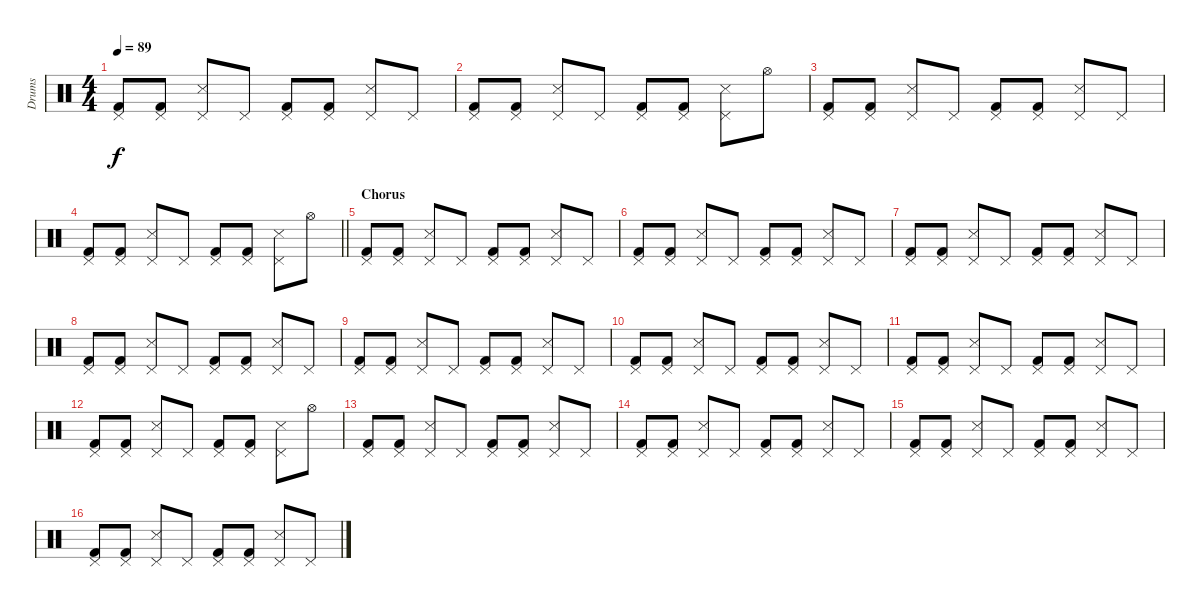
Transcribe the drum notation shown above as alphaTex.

\track ("Drums" "Drums") {instrument percussion}
\staff {score}
\articulation defaults
\ts (4 4)
\tempo 89
\clef neutral
\ks c
("Pedal Hi-Hat (hit)" "Kick (hit) 2").8{dy f} ("Pedal Hi-Hat (hit)" "Kick (hit) 2").8 ("Pedal Hi-Hat (hit)" "Snare (side stick) 3").8 "Pedal Hi-Hat (hit)".8 ("Pedal Hi-Hat (hit)" "Kick (hit) 2").8 ("Pedal Hi-Hat (hit)" "Kick (hit) 2").8 ("Pedal Hi-Hat (hit)" "Snare (side stick) 3").8 "Pedal Hi-Hat (hit)".8 |
("Pedal Hi-Hat (hit)" "Kick (hit) 2").8 ("Pedal Hi-Hat (hit)" "Kick (hit) 2").8 ("Pedal Hi-Hat (hit)" "Snare (side stick) 3").8 "Pedal Hi-Hat (hit)".8 ("Pedal Hi-Hat (hit)" "Kick (hit) 2").8 ("Pedal Hi-Hat (hit)" "Kick (hit) 2").8 ("Pedal Hi-Hat (hit)" "Snare (side stick) 3").8 "Hi-Hat (open)".8 |
("Pedal Hi-Hat (hit)" "Kick (hit) 2").8 ("Pedal Hi-Hat (hit)" "Kick (hit) 2").8 ("Pedal Hi-Hat (hit)" "Snare (side stick) 3").8 "Pedal Hi-Hat (hit)".8 ("Pedal Hi-Hat (hit)" "Kick (hit) 2").8 ("Pedal Hi-Hat (hit)" "Kick (hit) 2").8 ("Pedal Hi-Hat (hit)" "Snare (side stick) 3").8 "Pedal Hi-Hat (hit)".8 |
\barLineRight lightlight
("Pedal Hi-Hat (hit)" "Kick (hit) 2").8 ("Pedal Hi-Hat (hit)" "Kick (hit) 2").8 ("Pedal Hi-Hat (hit)" "Snare (side stick) 3").8 "Pedal Hi-Hat (hit)".8 ("Pedal Hi-Hat (hit)" "Kick (hit) 2").8 ("Pedal Hi-Hat (hit)" "Kick (hit) 2").8 ("Pedal Hi-Hat (hit)" "Snare (side stick) 3").8 "Hi-Hat (open)".8 |
\section ("" "Chorus")
("Pedal Hi-Hat (hit)" "Kick (hit) 2").8 ("Pedal Hi-Hat (hit)" "Kick (hit) 2").8 ("Pedal Hi-Hat (hit)" "Snare (side stick) 3").8 "Pedal Hi-Hat (hit)".8 ("Pedal Hi-Hat (hit)" "Kick (hit) 2").8 ("Pedal Hi-Hat (hit)" "Kick (hit) 2").8 ("Pedal Hi-Hat (hit)" "Snare (side stick) 3").8 "Pedal Hi-Hat (hit)".8 |
("Pedal Hi-Hat (hit)" "Kick (hit) 2").8 ("Pedal Hi-Hat (hit)" "Kick (hit) 2").8 ("Pedal Hi-Hat (hit)" "Snare (side stick) 3").8 "Pedal Hi-Hat (hit)".8 ("Pedal Hi-Hat (hit)" "Kick (hit) 2").8 ("Pedal Hi-Hat (hit)" "Kick (hit) 2").8 ("Pedal Hi-Hat (hit)" "Snare (side stick) 3").8 "Pedal Hi-Hat (hit)".8 |
("Pedal Hi-Hat (hit)" "Kick (hit) 2").8 ("Pedal Hi-Hat (hit)" "Kick (hit) 2").8 ("Pedal Hi-Hat (hit)" "Snare (side stick) 3").8 "Pedal Hi-Hat (hit)".8 ("Pedal Hi-Hat (hit)" "Kick (hit) 2").8 ("Pedal Hi-Hat (hit)" "Kick (hit) 2").8 ("Pedal Hi-Hat (hit)" "Snare (side stick) 3").8 "Pedal Hi-Hat (hit)".8 |
("Pedal Hi-Hat (hit)" "Kick (hit) 2").8 ("Pedal Hi-Hat (hit)" "Kick (hit) 2").8 ("Pedal Hi-Hat (hit)" "Snare (side stick) 3").8 "Pedal Hi-Hat (hit)".8 ("Pedal Hi-Hat (hit)" "Kick (hit) 2").8 ("Pedal Hi-Hat (hit)" "Kick (hit) 2").8 ("Pedal Hi-Hat (hit)" "Snare (side stick) 3").8 "Pedal Hi-Hat (hit)".8 |
("Pedal Hi-Hat (hit)" "Kick (hit) 2").8 ("Pedal Hi-Hat (hit)" "Kick (hit) 2").8 ("Pedal Hi-Hat (hit)" "Snare (side stick) 3").8 "Pedal Hi-Hat (hit)".8 ("Pedal Hi-Hat (hit)" "Kick (hit) 2").8 ("Pedal Hi-Hat (hit)" "Kick (hit) 2").8 ("Pedal Hi-Hat (hit)" "Snare (side stick) 3").8 "Pedal Hi-Hat (hit)".8 |
("Pedal Hi-Hat (hit)" "Kick (hit) 2").8 ("Pedal Hi-Hat (hit)" "Kick (hit) 2").8 ("Pedal Hi-Hat (hit)" "Snare (side stick) 3").8 "Pedal Hi-Hat (hit)".8 ("Pedal Hi-Hat (hit)" "Kick (hit) 2").8 ("Pedal Hi-Hat (hit)" "Kick (hit) 2").8 ("Pedal Hi-Hat (hit)" "Snare (side stick) 3").8 "Pedal Hi-Hat (hit)".8 |
("Pedal Hi-Hat (hit)" "Kick (hit) 2").8 ("Pedal Hi-Hat (hit)" "Kick (hit) 2").8 ("Pedal Hi-Hat (hit)" "Snare (side stick) 3").8 "Pedal Hi-Hat (hit)".8 ("Pedal Hi-Hat (hit)" "Kick (hit) 2").8 ("Pedal Hi-Hat (hit)" "Kick (hit) 2").8 ("Pedal Hi-Hat (hit)" "Snare (side stick) 3").8 "Pedal Hi-Hat (hit)".8 |
("Pedal Hi-Hat (hit)" "Kick (hit) 2").8 ("Pedal Hi-Hat (hit)" "Kick (hit) 2").8 ("Pedal Hi-Hat (hit)" "Snare (side stick) 3").8 "Pedal Hi-Hat (hit)".8 ("Pedal Hi-Hat (hit)" "Kick (hit) 2").8 ("Pedal Hi-Hat (hit)" "Kick (hit) 2").8 ("Pedal Hi-Hat (hit)" "Snare (side stick) 3").8 "Hi-Hat (open)".8 |
("Pedal Hi-Hat (hit)" "Kick (hit) 2").8 ("Pedal Hi-Hat (hit)" "Kick (hit) 2").8 ("Pedal Hi-Hat (hit)" "Snare (side stick) 3").8 "Pedal Hi-Hat (hit)".8 ("Pedal Hi-Hat (hit)" "Kick (hit) 2").8 ("Pedal Hi-Hat (hit)" "Kick (hit) 2").8 ("Pedal Hi-Hat (hit)" "Snare (side stick) 3").8 "Pedal Hi-Hat (hit)".8 |
("Pedal Hi-Hat (hit)" "Kick (hit) 2").8 ("Pedal Hi-Hat (hit)" "Kick (hit) 2").8 ("Pedal Hi-Hat (hit)" "Snare (side stick) 3").8 "Pedal Hi-Hat (hit)".8 ("Pedal Hi-Hat (hit)" "Kick (hit) 2").8 ("Pedal Hi-Hat (hit)" "Kick (hit) 2").8 ("Pedal Hi-Hat (hit)" "Snare (side stick) 3").8 "Pedal Hi-Hat (hit)".8 |
("Pedal Hi-Hat (hit)" "Kick (hit) 2").8 ("Pedal Hi-Hat (hit)" "Kick (hit) 2").8 ("Pedal Hi-Hat (hit)" "Snare (side stick) 3").8 "Pedal Hi-Hat (hit)".8 ("Pedal Hi-Hat (hit)" "Kick (hit) 2").8 ("Pedal Hi-Hat (hit)" "Kick (hit) 2").8 ("Pedal Hi-Hat (hit)" "Snare (side stick) 3").8 "Pedal Hi-Hat (hit)".8 |
("Pedal Hi-Hat (hit)" "Kick (hit) 2").8 ("Pedal Hi-Hat (hit)" "Kick (hit) 2").8 ("Pedal Hi-Hat (hit)" "Snare (side stick) 3").8 "Pedal Hi-Hat (hit)".8 ("Pedal Hi-Hat (hit)" "Kick (hit) 2").8 ("Pedal Hi-Hat (hit)" "Kick (hit) 2").8 ("Pedal Hi-Hat (hit)" "Snare (side stick) 3").8 "Pedal Hi-Hat (hit)".8
